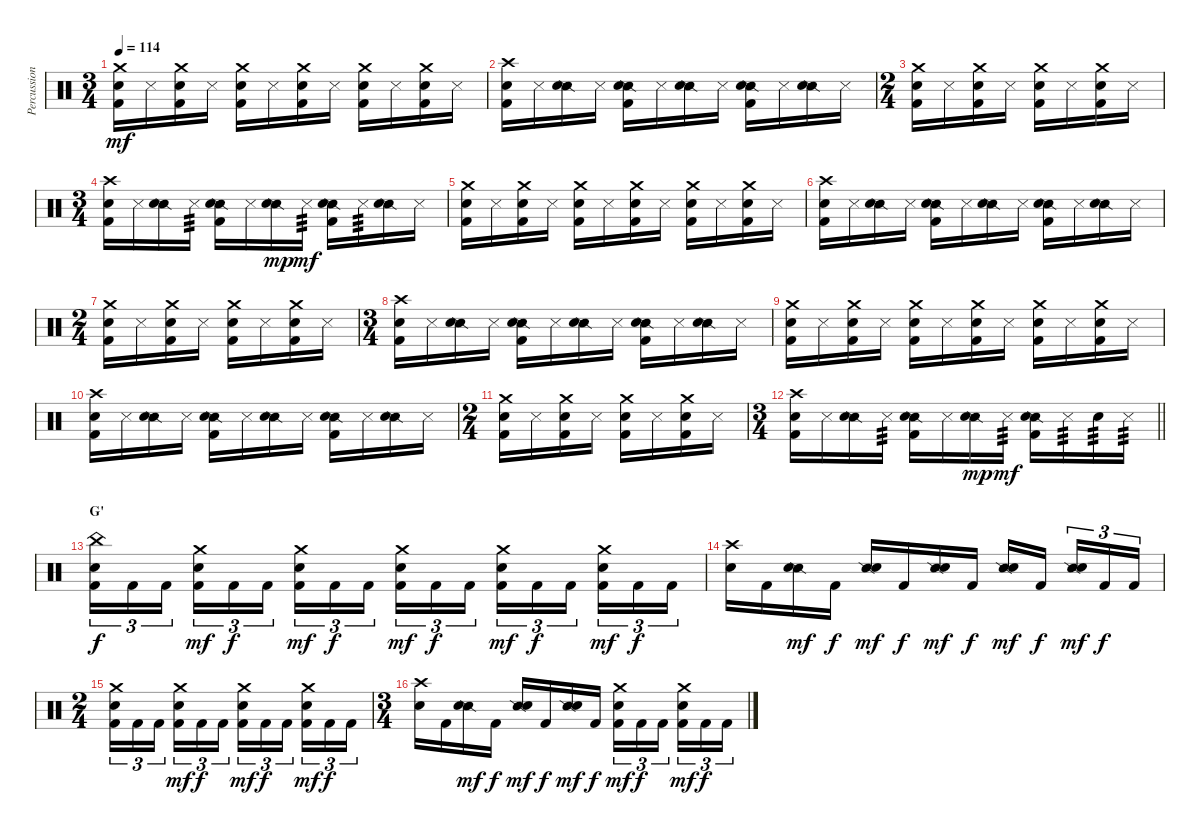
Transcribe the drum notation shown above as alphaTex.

\track ("Percussion" "Percussion") {instrument percussion}
\staff {score}
\articulation defaults
\ts (3 4)
\tempo 114
\clef neutral
\ks c
("Crash medium (hit)" "Snare (hit) 2" "Kick (hit) 2").16{dy mf} "Metronome (hit)".16 ("Crash medium (hit)" "Snare (hit) 2" "Kick (hit) 2").16 "Metronome (hit)".16 ("Crash medium (hit)" "Snare (hit) 2" "Kick (hit) 2").16 "Metronome (hit)".16 ("Crash medium (hit)" "Snare (hit) 2" "Kick (hit) 2").16 "Metronome (hit)".16 ("Crash medium (hit)" "Snare (hit) 2" "Kick (hit) 2").16 "Metronome (hit)".16 ("Crash medium (hit)" "Snare (hit) 2" "Kick (hit) 2").16 "Metronome (hit)".16 |
("Crash high (hit)" "Snare (hit) 2" "Kick (hit) 2").16 "Metronome (hit)".16 ("Snare (side stick) 2" "Snare (hit) 2").16 "Metronome (hit)".16 ("Snare (side stick) 2" "Snare (hit) 2" "Kick (hit) 2").16 "Metronome (hit)".16 ("Snare (side stick) 2" "Snare (hit) 2").16 "Metronome (hit)".16 ("Snare (side stick) 2" "Snare (hit) 2" "Kick (hit) 2").16 "Metronome (hit)".16 ("Snare (side stick) 2" "Snare (hit) 2").16 "Metronome (hit)".16 |
\ts (2 4)
("Crash medium (hit)" "Snare (hit) 2" "Kick (hit) 2").16 "Metronome (hit)".16 ("Crash medium (hit)" "Snare (hit) 2" "Kick (hit) 2").16 "Metronome (hit)".16 ("Crash medium (hit)" "Snare (hit) 2" "Kick (hit) 2").16 "Metronome (hit)".16 ("Crash medium (hit)" "Snare (hit) 2" "Kick (hit) 2").16 "Metronome (hit)".16 |
\ts (3 4)
("Crash high (hit)" "Snare (hit) 2" "Kick (hit) 2").16 "Metronome (hit)".16 ("Snare (side stick) 2" "Snare (hit) 2").16 "Metronome (hit)".16{tp 3} ("Snare (side stick) 2" "Snare (hit) 2" "Kick (hit) 2").16 "Metronome (hit)".16 ("Snare (side stick) 2" "Snare (hit) 2").16{dy mp} "Metronome (hit)".16{tp 3 dy mf} ("Snare (side stick) 2" "Snare (hit) 2" "Kick (hit) 2").16 "Metronome (hit)".16{tp 3} ("Snare (side stick) 2" "Snare (hit) 2").16 "Metronome (hit)".16 |
("Crash medium (hit)" "Snare (hit) 2" "Kick (hit) 2").16 "Metronome (hit)".16 ("Crash medium (hit)" "Snare (hit) 2" "Kick (hit) 2").16 "Metronome (hit)".16 ("Crash medium (hit)" "Snare (hit) 2" "Kick (hit) 2").16 "Metronome (hit)".16 ("Crash medium (hit)" "Snare (hit) 2" "Kick (hit) 2").16 "Metronome (hit)".16 ("Crash medium (hit)" "Snare (hit) 2" "Kick (hit) 2").16 "Metronome (hit)".16 ("Crash medium (hit)" "Snare (hit) 2" "Kick (hit) 2").16 "Metronome (hit)".16 |
("Crash high (hit)" "Snare (hit) 2" "Kick (hit) 2").16 "Metronome (hit)".16 ("Snare (side stick) 2" "Snare (hit) 2").16 "Metronome (hit)".16 ("Snare (side stick) 2" "Snare (hit) 2" "Kick (hit) 2").16 "Metronome (hit)".16 ("Snare (side stick) 2" "Snare (hit) 2").16 "Metronome (hit)".16 ("Snare (side stick) 2" "Snare (hit) 2" "Kick (hit) 2").16 "Metronome (hit)".16 ("Snare (side stick) 2" "Snare (hit) 2").16 "Metronome (hit)".16 |
\ts (2 4)
("Crash medium (hit)" "Snare (hit) 2" "Kick (hit) 2").16 "Metronome (hit)".16 ("Crash medium (hit)" "Snare (hit) 2" "Kick (hit) 2").16 "Metronome (hit)".16 ("Crash medium (hit)" "Snare (hit) 2" "Kick (hit) 2").16 "Metronome (hit)".16 ("Crash medium (hit)" "Snare (hit) 2" "Kick (hit) 2").16 "Metronome (hit)".16 |
\ts (3 4)
("Crash high (hit)" "Snare (hit) 2" "Kick (hit) 2").16 "Metronome (hit)".16 ("Snare (side stick) 2" "Snare (hit) 2").16 "Metronome (hit)".16 ("Snare (side stick) 2" "Snare (hit) 2" "Kick (hit) 2").16 "Metronome (hit)".16 ("Snare (side stick) 2" "Snare (hit) 2").16 "Metronome (hit)".16 ("Snare (side stick) 2" "Snare (hit) 2" "Kick (hit) 2").16 "Metronome (hit)".16 ("Snare (side stick) 2" "Snare (hit) 2").16 "Metronome (hit)".16 |
("Crash medium (hit)" "Snare (hit) 2" "Kick (hit) 2").16 "Metronome (hit)".16 ("Crash medium (hit)" "Snare (hit) 2" "Kick (hit) 2").16 "Metronome (hit)".16 ("Crash medium (hit)" "Snare (hit) 2" "Kick (hit) 2").16 "Metronome (hit)".16 ("Crash medium (hit)" "Snare (hit) 2" "Kick (hit) 2").16 "Metronome (hit)".16 ("Crash medium (hit)" "Snare (hit) 2" "Kick (hit) 2").16 "Metronome (hit)".16 ("Crash medium (hit)" "Snare (hit) 2" "Kick (hit) 2").16 "Metronome (hit)".16 |
("Crash high (hit)" "Snare (hit) 2" "Kick (hit) 2").16 "Metronome (hit)".16 ("Snare (side stick) 2" "Snare (hit) 2").16 "Metronome (hit)".16 ("Snare (side stick) 2" "Snare (hit) 2" "Kick (hit) 2").16 "Metronome (hit)".16 ("Snare (side stick) 2" "Snare (hit) 2").16 "Metronome (hit)".16 ("Snare (side stick) 2" "Snare (hit) 2" "Kick (hit) 2").16 "Metronome (hit)".16 ("Snare (side stick) 2" "Snare (hit) 2").16 "Metronome (hit)".16 |
\ts (2 4)
("Crash medium (hit)" "Snare (hit) 2" "Kick (hit) 2").16 "Metronome (hit)".16 ("Crash medium (hit)" "Snare (hit) 2" "Kick (hit) 2").16 "Metronome (hit)".16 ("Crash medium (hit)" "Snare (hit) 2" "Kick (hit) 2").16 "Metronome (hit)".16 ("Crash medium (hit)" "Snare (hit) 2" "Kick (hit) 2").16 "Metronome (hit)".16 |
\ts (3 4)
\barLineRight lightlight
("Crash high (hit)" "Snare (hit) 2" "Kick (hit) 2").16 "Metronome (hit)".16 ("Snare (side stick) 2" "Snare (hit) 2").16 "Metronome (hit)".16{tp 3} ("Snare (side stick) 2" "Snare (hit) 2" "Kick (hit) 2").16 "Metronome (hit)".16 ("Snare (side stick) 2" "Snare (hit) 2").16{dy mp} "Metronome (hit)".16{tp 3 dy mf} ("Snare (side stick) 2" "Snare (hit) 2" "Kick (hit) 2").16 "Metronome (hit)".16{tp 3} "Snare (hit) 2".16{tp 3} "Metronome (hit)".16{tp 3} |
\section ("" "G'")
("China (hit)" "Snare (hit) 2" "Kick (hit) 2").16{tu (3 2) dy f} "Kick (hit) 2".16{tu (3 2)} "Kick (hit) 2".16{tu (3 2) beam splitsecondary} ("Crash medium (hit)" "Snare (hit) 2" "Kick (hit) 2").16{tu (3 2) dy mf} "Kick (hit) 2".16{tu (3 2) dy f} "Kick (hit) 2".16{tu (3 2)} ("Crash medium (hit)" "Snare (hit) 2" "Kick (hit) 2").16{tu (3 2) dy mf} "Kick (hit) 2".16{tu (3 2) dy f} "Kick (hit) 2".16{tu (3 2) beam splitsecondary} ("Crash medium (hit)" "Snare (hit) 2" "Kick (hit) 2").16{tu (3 2) dy mf} "Kick (hit) 2".16{tu (3 2) dy f} "Kick (hit) 2".16{tu (3 2)} ("Crash medium (hit)" "Snare (hit) 2" "Kick (hit) 2").16{tu (3 2) dy mf} "Kick (hit) 2".16{tu (3 2) dy f} "Kick (hit) 2".16{tu (3 2) beam splitsecondary} ("Crash medium (hit)" "Snare (hit) 2" "Kick (hit) 2").16{tu (3 2) dy mf} "Kick (hit) 2".16{tu (3 2) dy f} "Kick (hit) 2".16{tu (3 2)} |
("Crash high (hit)" "Snare (hit) 2").16 "Kick (hit) 2".16 ("Snare (side stick) 2" "Snare (hit) 2").16{dy mf} "Kick (hit) 2".16{dy f} ("Snare (side stick) 2" "Snare (hit) 2").16{dy mf} "Kick (hit) 2".16{dy f} ("Snare (side stick) 2" "Snare (hit) 2").16{dy mf} "Kick (hit) 2".16{dy f} ("Snare (side stick) 2" "Snare (hit) 2").16{dy mf} "Kick (hit) 2".16{dy f beam splitsecondary} ("Snare (side stick) 2" "Snare (hit) 2").16{tu (3 2) dy mf} "Kick (hit) 2".16{tu (3 2) dy f} "Kick (hit) 2".16{tu (3 2)} |
\ts (2 4)
("Crash medium (hit)" "Snare (hit) 2" "Kick (hit) 2").16{tu (3 2)} "Kick (hit) 2".16{tu (3 2)} "Kick (hit) 2".16{tu (3 2) beam splitsecondary} ("Crash medium (hit)" "Snare (hit) 2" "Kick (hit) 2").16{tu (3 2) dy mf} "Kick (hit) 2".16{tu (3 2) dy f} "Kick (hit) 2".16{tu (3 2)} ("Crash medium (hit)" "Snare (hit) 2" "Kick (hit) 2").16{tu (3 2) dy mf} "Kick (hit) 2".16{tu (3 2) dy f} "Kick (hit) 2".16{tu (3 2) beam splitsecondary} ("Crash medium (hit)" "Snare (hit) 2" "Kick (hit) 2").16{tu (3 2) dy mf} "Kick (hit) 2".16{tu (3 2) dy f} "Kick (hit) 2".16{tu (3 2)} |
\ts (3 4)
("Crash high (hit)" "Snare (hit) 2").16 "Kick (hit) 2".16 ("Snare (side stick) 2" "Snare (hit) 2").16{dy mf} "Kick (hit) 2".16{dy f} ("Snare (side stick) 2" "Snare (hit) 2").16{dy mf} "Kick (hit) 2".16{dy f} ("Snare (side stick) 2" "Snare (hit) 2").16{dy mf} "Kick (hit) 2".16{dy f} ("Crash medium (hit)" "Snare (hit) 2" "Kick (hit) 2").16{tu (3 2) dy mf} "Kick (hit) 2".16{tu (3 2) dy f} "Kick (hit) 2".16{tu (3 2) beam splitsecondary} ("Crash medium (hit)" "Snare (hit) 2" "Kick (hit) 2").16{tu (3 2) dy mf} "Kick (hit) 2".16{tu (3 2) dy f} "Kick (hit) 2".16{tu (3 2)}
